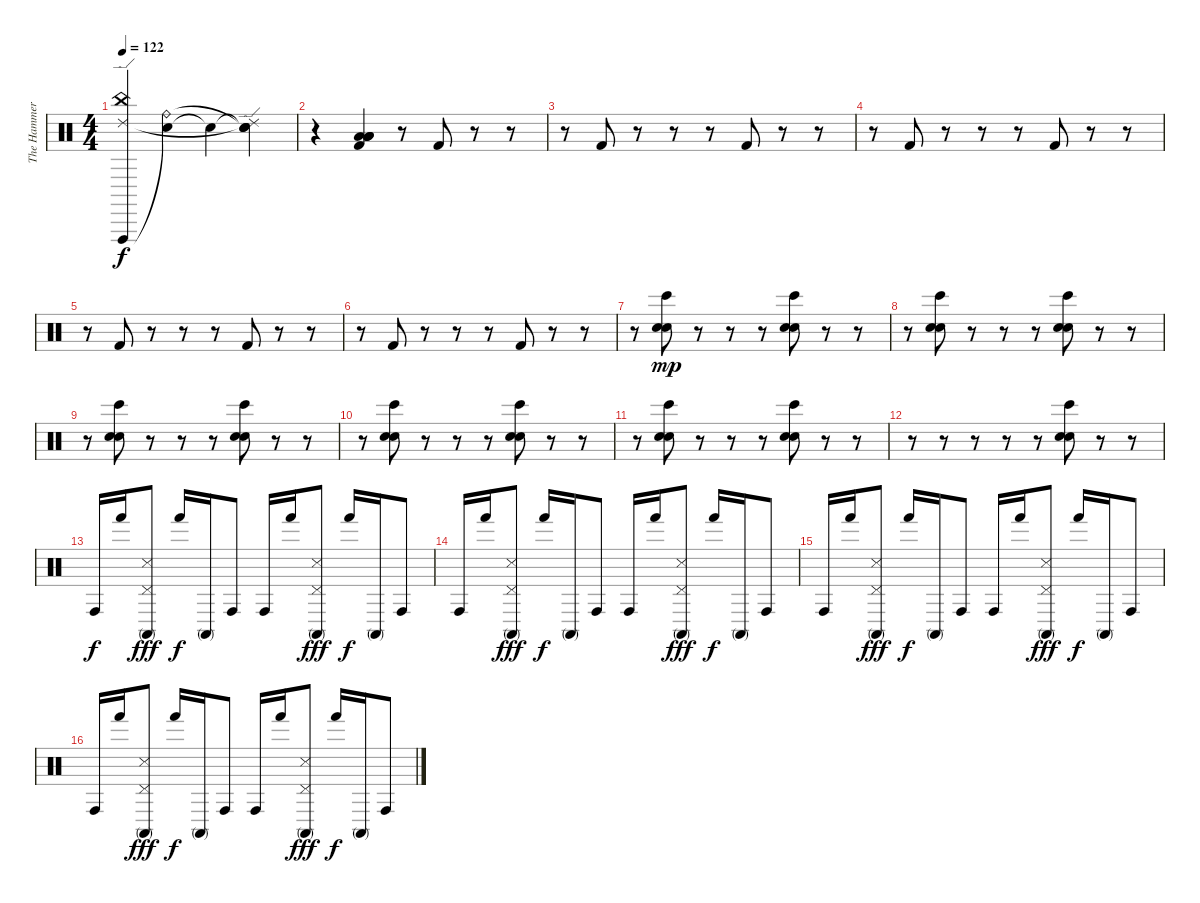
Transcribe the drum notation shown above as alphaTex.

\track ("The Hammer" "The Hammer") {instrument percussion}
\staff {score}
\articulation defaults
\ts (4 4)
\tempo 122
\clef neutral
\ks c
("Vibraslap (hit)" "China (hit)" "Ride (edge) 2").4{dy f} ("Snare (hit)"{t} "Ride (bell)").4 "Snare (hit)"{t}.4 ("Snare (hit)"{t} "Snare (hit)"{t} "Ride (edge) 2"{t} "Snare (hit)").4 |
r.4 ("Low Floor Tom (hit)" "Low Floor Tom (hit)" "Low Floor Tom (hit)" "Kick (hit) 2" "Low Floor Tom (hit)").4 r.8 "Kick (hit) 2".8 r.8 r.8 |
r.8 "Kick (hit) 2".8 r.8 r.8 r.8 "Kick (hit) 2".8 r.8 r.8 |
r.8 "Kick (hit) 2".8 r.8 r.8 r.8 "Kick (hit) 2".8 r.8 r.8 |
r.8 "Kick (hit) 2".8 r.8 r.8 r.8 "Kick (hit) 2".8 r.8 r.8 |
r.8 "Kick (hit) 2".8 r.8 r.8 r.8 "Kick (hit) 2".8 r.8 r.8 |
r.8 ("Electric Snare (hit)" "Bongo High (hit)" "Hand Clap (hit)").8{dy mp} r.8 r.8 r.8 ("Electric Snare (hit)" "Bongo High (hit)" "Hand Clap (hit)").8 r.8 r.8 |
r.8 ("Electric Snare (hit)" "Bongo High (hit)" "Hand Clap (hit)").8 r.8 r.8 r.8 ("Electric Snare (hit)" "Bongo High (hit)" "Hand Clap (hit)").8 r.8 r.8 |
r.8 ("Electric Snare (hit)" "Bongo High (hit)" "Hand Clap (hit)").8 r.8 r.8 r.8 ("Electric Snare (hit)" "Bongo High (hit)" "Hand Clap (hit)").8 r.8 r.8 |
r.8 ("Electric Snare (hit)" "Bongo High (hit)" "Hand Clap (hit)").8 r.8 r.8 r.8 ("Electric Snare (hit)" "Bongo High (hit)" "Hand Clap (hit)").8 r.8 r.8 |
r.8 ("Electric Snare (hit)" "Bongo High (hit)" "Hand Clap (hit)").8 r.8 r.8 r.8 ("Electric Snare (hit)" "Bongo High (hit)" "Hand Clap (hit)").8 r.8 r.8 |
r.8 r.8 r.8 r.8 r.8 ("Electric Snare (hit)" "Bongo High (hit)" "Hand Clap (hit)").8 r.8 r.8 |
"Conga high (hit)".16{dy f} "Hand (hit)".16 ("Conga high (mute)" "Metronome (hit)" "Pedal Hi-Hat (hit)").8{dy fff} "Hand (hit)".16{dy f} "Conga high (mute)".16 "Conga high (hit)".8 "Conga high (hit)".16 "Hand (hit)".16 ("Conga high (mute)" "Metronome (hit)" "Pedal Hi-Hat (hit)").8{dy fff} "Hand (hit)".16{dy f} "Conga high (mute)".16 "Conga high (hit)".8 |
"Conga high (hit)".16 "Hand (hit)".16 ("Conga high (mute)" "Metronome (hit)" "Pedal Hi-Hat (hit)").8{dy fff} "Hand (hit)".16{dy f} "Conga high (mute)".16 "Conga high (hit)".8 "Conga high (hit)".16 "Hand (hit)".16 ("Conga high (mute)" "Metronome (hit)" "Pedal Hi-Hat (hit)").8{dy fff} "Hand (hit)".16{dy f} "Conga high (mute)".16 "Conga high (hit)".8 |
"Conga high (hit)".16 "Hand (hit)".16 ("Conga high (mute)" "Metronome (hit)" "Pedal Hi-Hat (hit)").8{dy fff} "Hand (hit)".16{dy f} "Conga high (mute)".16 "Conga high (hit)".8 "Conga high (hit)".16 "Hand (hit)".16 ("Conga high (mute)" "Metronome (hit)" "Pedal Hi-Hat (hit)").8{dy fff} "Hand (hit)".16{dy f} "Conga high (mute)".16 "Conga high (hit)".8 |
"Conga high (hit)".16 "Hand (hit)".16 ("Conga high (mute)" "Metronome (hit)" "Pedal Hi-Hat (hit)").8{dy fff} "Hand (hit)".16{dy f} "Conga high (mute)".16 "Conga high (hit)".8 "Conga high (hit)".16 "Hand (hit)".16 ("Conga high (mute)" "Metronome (hit)" "Pedal Hi-Hat (hit)").8{dy fff} "Hand (hit)".16{dy f} "Conga high (mute)".16 "Conga high (hit)".8
